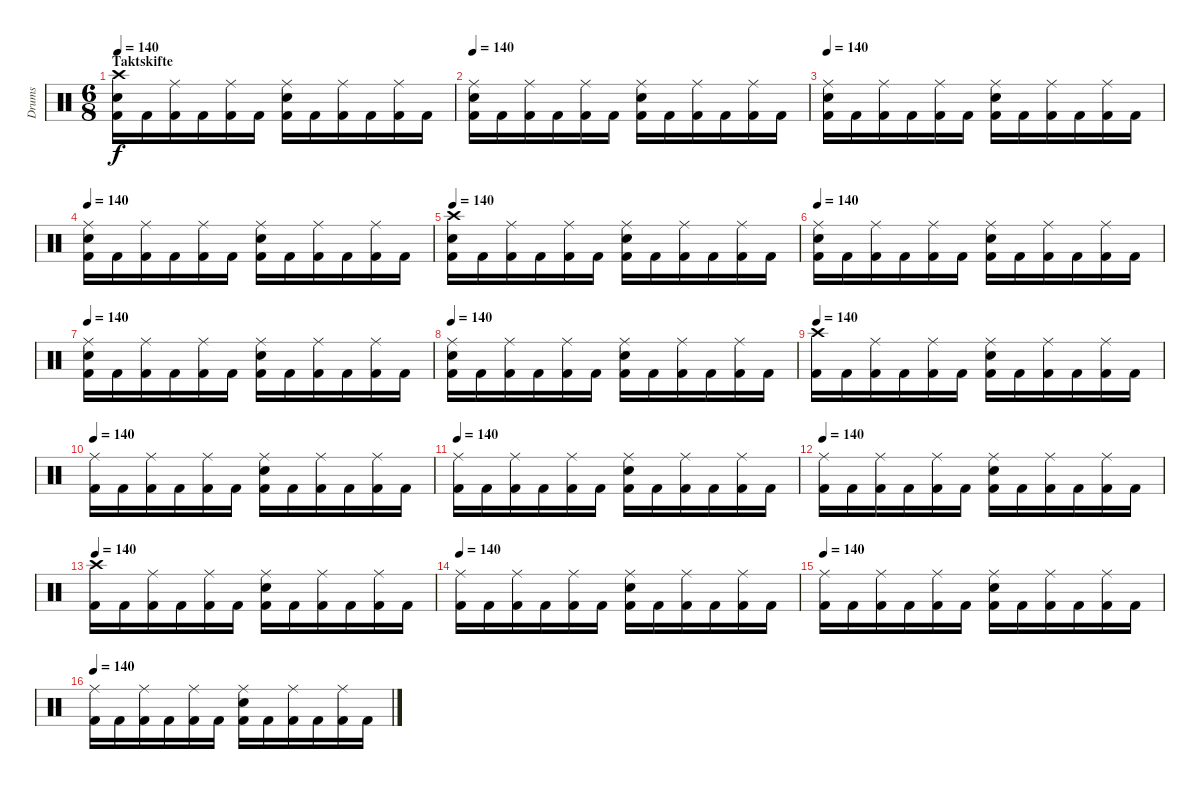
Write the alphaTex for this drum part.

\track ("Drums" "Drums") {instrument percussion}
\staff {score}
\articulation defaults
\ts (6 8)
\section ("" "Taktskifte")
\tempo 140
\clef neutral
\ks c
("Kick (hit) 2" "Electric Snare (hit)" "Crash high (hit)").16{dy f} "Kick (hit) 2".16 ("Kick (hit) 2" "Ride (middle)").16 "Kick (hit) 2".16 ("Kick (hit) 2" "Ride (middle)").16 "Kick (hit) 2".16 ("Kick (hit) 2" "Electric Snare (hit)" "Ride (middle)").16 "Kick (hit) 2".16 ("Kick (hit) 2" "Ride (middle)").16 "Kick (hit) 2".16 ("Kick (hit) 2" "Ride (middle)").16 "Kick (hit) 2".16 |
\tempo 140
("Kick (hit) 2" "Electric Snare (hit)" "Ride (middle)").16 "Kick (hit) 2".16 ("Kick (hit) 2" "Ride (middle)").16 "Kick (hit) 2".16 ("Kick (hit) 2" "Ride (middle)").16 "Kick (hit) 2".16 ("Kick (hit) 2" "Electric Snare (hit)" "Ride (middle)").16 "Kick (hit) 2".16 ("Kick (hit) 2" "Ride (middle)").16 "Kick (hit) 2".16 ("Kick (hit) 2" "Ride (middle)").16 "Kick (hit) 2".16 |
\tempo 140
("Kick (hit) 2" "Electric Snare (hit)" "Ride (middle)").16 "Kick (hit) 2".16 ("Kick (hit) 2" "Ride (middle)").16 "Kick (hit) 2".16 ("Kick (hit) 2" "Ride (middle)").16 "Kick (hit) 2".16 ("Kick (hit) 2" "Electric Snare (hit)" "Ride (middle)").16 "Kick (hit) 2".16 ("Kick (hit) 2" "Ride (middle)").16 "Kick (hit) 2".16 ("Kick (hit) 2" "Ride (middle)").16 "Kick (hit) 2".16 |
\tempo 140
("Kick (hit) 2" "Electric Snare (hit)" "Ride (middle)").16 "Kick (hit) 2".16 ("Kick (hit) 2" "Ride (middle)").16 "Kick (hit) 2".16 ("Kick (hit) 2" "Ride (middle)").16 "Kick (hit) 2".16 ("Kick (hit) 2" "Electric Snare (hit)" "Ride (middle)").16 "Kick (hit) 2".16 ("Kick (hit) 2" "Ride (middle)").16 "Kick (hit) 2".16 ("Kick (hit) 2" "Ride (middle)").16 "Kick (hit) 2".16 |
\tempo 140
("Kick (hit) 2" "Electric Snare (hit)" "Crash high (hit)").16 "Kick (hit) 2".16 ("Kick (hit) 2" "Ride (middle)").16 "Kick (hit) 2".16 ("Kick (hit) 2" "Ride (middle)").16 "Kick (hit) 2".16 ("Kick (hit) 2" "Electric Snare (hit)" "Ride (middle)").16 "Kick (hit) 2".16 ("Kick (hit) 2" "Ride (middle)").16 "Kick (hit) 2".16 ("Kick (hit) 2" "Ride (middle)").16 "Kick (hit) 2".16 |
\tempo 140
("Kick (hit) 2" "Electric Snare (hit)" "Ride (middle)").16 "Kick (hit) 2".16 ("Kick (hit) 2" "Ride (middle)").16 "Kick (hit) 2".16 ("Kick (hit) 2" "Ride (middle)").16 "Kick (hit) 2".16 ("Kick (hit) 2" "Electric Snare (hit)" "Ride (middle)").16 "Kick (hit) 2".16 ("Kick (hit) 2" "Ride (middle)").16 "Kick (hit) 2".16 ("Kick (hit) 2" "Ride (middle)").16 "Kick (hit) 2".16 |
\tempo 140
("Kick (hit) 2" "Electric Snare (hit)" "Ride (middle)").16 "Kick (hit) 2".16 ("Kick (hit) 2" "Ride (middle)").16 "Kick (hit) 2".16 ("Kick (hit) 2" "Ride (middle)").16 "Kick (hit) 2".16 ("Kick (hit) 2" "Electric Snare (hit)" "Ride (middle)").16 "Kick (hit) 2".16 ("Kick (hit) 2" "Ride (middle)").16 "Kick (hit) 2".16 ("Kick (hit) 2" "Ride (middle)").16 "Kick (hit) 2".16 |
\tempo 140
("Kick (hit) 2" "Electric Snare (hit)" "Ride (middle)").16 "Kick (hit) 2".16 ("Kick (hit) 2" "Ride (middle)").16 "Kick (hit) 2".16 ("Kick (hit) 2" "Ride (middle)").16 "Kick (hit) 2".16 ("Kick (hit) 2" "Electric Snare (hit)" "Ride (middle)").16 "Kick (hit) 2".16 ("Kick (hit) 2" "Ride (middle)").16 "Kick (hit) 2".16 ("Kick (hit) 2" "Ride (middle)").16 "Kick (hit) 2".16 |
\tempo 140
("Kick (hit) 2" "Crash high (hit)").16 "Kick (hit) 2".16 ("Kick (hit) 2" "Ride (middle)").16 "Kick (hit) 2".16 ("Kick (hit) 2" "Ride (middle)").16 "Kick (hit) 2".16 ("Kick (hit) 2" "Electric Snare (hit)" "Ride (middle)").16 "Kick (hit) 2".16 ("Kick (hit) 2" "Ride (middle)").16 "Kick (hit) 2".16 ("Kick (hit) 2" "Ride (middle)").16 "Kick (hit) 2".16 |
\tempo 140
("Kick (hit) 2" "Ride (middle)").16 "Kick (hit) 2".16 ("Kick (hit) 2" "Ride (middle)").16 "Kick (hit) 2".16 ("Kick (hit) 2" "Ride (middle)").16 "Kick (hit) 2".16 ("Kick (hit) 2" "Electric Snare (hit)" "Ride (middle)").16 "Kick (hit) 2".16 ("Kick (hit) 2" "Ride (middle)").16 "Kick (hit) 2".16 ("Kick (hit) 2" "Ride (middle)").16 "Kick (hit) 2".16 |
\tempo 140
("Kick (hit) 2" "Ride (middle)").16 "Kick (hit) 2".16 ("Kick (hit) 2" "Ride (middle)").16 "Kick (hit) 2".16 ("Kick (hit) 2" "Ride (middle)").16 "Kick (hit) 2".16 ("Kick (hit) 2" "Electric Snare (hit)" "Ride (middle)").16 "Kick (hit) 2".16 ("Kick (hit) 2" "Ride (middle)").16 "Kick (hit) 2".16 ("Kick (hit) 2" "Ride (middle)").16 "Kick (hit) 2".16 |
\tempo 140
("Kick (hit) 2" "Ride (middle)").16 "Kick (hit) 2".16 ("Kick (hit) 2" "Ride (middle)").16 "Kick (hit) 2".16 ("Kick (hit) 2" "Ride (middle)").16 "Kick (hit) 2".16 ("Kick (hit) 2" "Electric Snare (hit)" "Ride (middle)").16 "Kick (hit) 2".16 ("Kick (hit) 2" "Ride (middle)").16 "Kick (hit) 2".16 ("Kick (hit) 2" "Ride (middle)").16 "Kick (hit) 2".16 |
\tempo 140
("Kick (hit) 2" "Crash high (hit)").16 "Kick (hit) 2".16 ("Kick (hit) 2" "Ride (middle)").16 "Kick (hit) 2".16 ("Kick (hit) 2" "Ride (middle)").16 "Kick (hit) 2".16 ("Kick (hit) 2" "Electric Snare (hit)" "Ride (middle)").16 "Kick (hit) 2".16 ("Kick (hit) 2" "Ride (middle)").16 "Kick (hit) 2".16 ("Kick (hit) 2" "Ride (middle)").16 "Kick (hit) 2".16 |
\tempo 140
("Kick (hit) 2" "Ride (middle)").16 "Kick (hit) 2".16 ("Kick (hit) 2" "Ride (middle)").16 "Kick (hit) 2".16 ("Kick (hit) 2" "Ride (middle)").16 "Kick (hit) 2".16 ("Kick (hit) 2" "Electric Snare (hit)" "Ride (middle)").16 "Kick (hit) 2".16 ("Kick (hit) 2" "Ride (middle)").16 "Kick (hit) 2".16 ("Kick (hit) 2" "Ride (middle)").16 "Kick (hit) 2".16 |
\tempo 140
("Kick (hit) 2" "Ride (middle)").16 "Kick (hit) 2".16 ("Kick (hit) 2" "Ride (middle)").16 "Kick (hit) 2".16 ("Kick (hit) 2" "Ride (middle)").16 "Kick (hit) 2".16 ("Kick (hit) 2" "Electric Snare (hit)" "Ride (middle)").16 "Kick (hit) 2".16 ("Kick (hit) 2" "Ride (middle)").16 "Kick (hit) 2".16 ("Kick (hit) 2" "Ride (middle)").16 "Kick (hit) 2".16 |
\tempo 140
("Kick (hit) 2" "Ride (middle)").16 "Kick (hit) 2".16 ("Kick (hit) 2" "Ride (middle)").16 "Kick (hit) 2".16 ("Kick (hit) 2" "Ride (middle)").16 "Kick (hit) 2".16 ("Kick (hit) 2" "Electric Snare (hit)" "Ride (middle)").16 "Kick (hit) 2".16 ("Kick (hit) 2" "Ride (middle)").16 "Kick (hit) 2".16 ("Kick (hit) 2" "Ride (middle)").16 "Kick (hit) 2".16
